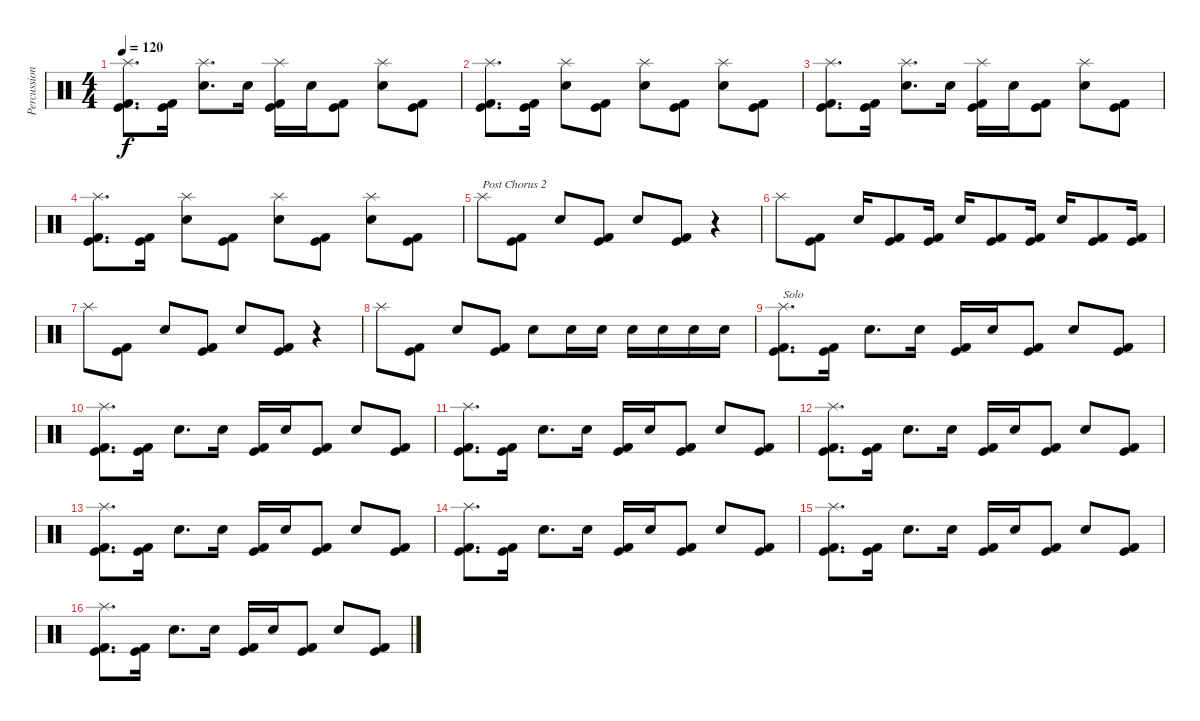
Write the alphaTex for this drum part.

\track ("Percussion" "Percussion") {instrument percussion}
\staff {score}
\articulation defaults
\ts (4 4)
\tempo 120
\clef neutral
\ks c
("Splash (hit)" "Kick (hit)" "Kick (hit) 2").8{d dy f} ("Kick (hit)" "Kick (hit) 2").16 ("Splash (hit)" "Snare (hit) 2").8{d} "Snare (hit) 2".16 ("Splash (hit)" "Kick (hit)" "Kick (hit) 2").16 "Snare (hit) 2".16 ("Kick (hit)" "Kick (hit) 2").8 ("Splash (hit)" "Snare (hit) 2").8 ("Kick (hit)" "Kick (hit) 2").8 |
("Splash (hit)" "Kick (hit)" "Kick (hit) 2").8{d} ("Kick (hit)" "Kick (hit) 2").16 ("Splash (hit)" "Snare (hit) 2").8 ("Kick (hit)" "Kick (hit) 2").8 ("Splash (hit)" "Snare (hit) 2").8 ("Kick (hit)" "Kick (hit) 2").8 ("Splash (hit)" "Snare (hit) 2").8 ("Kick (hit)" "Kick (hit) 2").8 |
("Splash (hit)" "Kick (hit)" "Kick (hit) 2").8{d} ("Kick (hit)" "Kick (hit) 2").16 ("Splash (hit)" "Snare (hit) 2").8{d} "Snare (hit) 2".16 ("Splash (hit)" "Kick (hit)" "Kick (hit) 2").16 "Snare (hit) 2".16 ("Kick (hit)" "Kick (hit) 2").8 ("Splash (hit)" "Snare (hit) 2").8 ("Kick (hit)" "Kick (hit) 2").8 |
("Splash (hit)" "Kick (hit)" "Kick (hit) 2").8{d} ("Kick (hit)" "Kick (hit) 2").16 ("Splash (hit)" "Snare (hit) 2").8 ("Kick (hit)" "Kick (hit) 2").8 ("Splash (hit)" "Snare (hit) 2").8 ("Kick (hit)" "Kick (hit) 2").8 ("Splash (hit)" "Snare (hit) 2").8 ("Kick (hit)" "Kick (hit) 2").8 |
"Splash (hit)".8{txt "Post Chorus 2"} ("Kick (hit)" "Kick (hit) 2").8 "Snare (hit) 2".8 ("Kick (hit)" "Kick (hit) 2").8 "Snare (hit) 2".8 ("Kick (hit)" "Kick (hit) 2").8 r.4 |
"Splash (hit)".8 ("Kick (hit)" "Kick (hit) 2").8 "Snare (hit) 2".16 ("Kick (hit)" "Kick (hit) 2").8 ("Kick (hit)" "Kick (hit) 2").16 "Snare (hit) 2".16 ("Kick (hit)" "Kick (hit) 2").8 ("Kick (hit)" "Kick (hit) 2").16 "Snare (hit) 2".16 ("Kick (hit)" "Kick (hit) 2").8 ("Kick (hit)" "Kick (hit) 2").16 |
"Splash (hit)".8 ("Kick (hit)" "Kick (hit) 2").8 "Snare (hit) 2".8 ("Kick (hit)" "Kick (hit) 2").8 "Snare (hit) 2".8 ("Kick (hit)" "Kick (hit) 2").8 r.4 |
"Splash (hit)".8 ("Kick (hit)" "Kick (hit) 2").8 "Snare (hit) 2".8 ("Kick (hit)" "Kick (hit) 2").8 "Snare (hit) 2".8 "Snare (hit) 2".16 "Snare (hit) 2".16 "Snare (hit) 2".16 "Snare (hit) 2".16 "Snare (hit) 2".16 "Snare (hit) 2".16 |
("Splash (hit)" "Kick (hit)" "Kick (hit) 2").8{d txt "Solo"} ("Kick (hit)" "Kick (hit) 2").16 "Snare (hit) 2".8{d} "Snare (hit) 2".16 ("Kick (hit)" "Kick (hit) 2").16 "Snare (hit) 2".16 ("Kick (hit)" "Kick (hit) 2").8 "Snare (hit) 2".8 ("Kick (hit)" "Kick (hit) 2").8 |
("Splash (hit)" "Kick (hit)" "Kick (hit) 2").8{d} ("Kick (hit)" "Kick (hit) 2").16 "Snare (hit) 2".8{d} "Snare (hit) 2".16 ("Kick (hit)" "Kick (hit) 2").16 "Snare (hit) 2".16 ("Kick (hit)" "Kick (hit) 2").8 "Snare (hit) 2".8 ("Kick (hit)" "Kick (hit) 2").8 |
("Splash (hit)" "Kick (hit)" "Kick (hit) 2").8{d} ("Kick (hit)" "Kick (hit) 2").16 "Snare (hit) 2".8{d} "Snare (hit) 2".16 ("Kick (hit)" "Kick (hit) 2").16 "Snare (hit) 2".16 ("Kick (hit)" "Kick (hit) 2").8 "Snare (hit) 2".8 ("Kick (hit)" "Kick (hit) 2").8 |
("Splash (hit)" "Kick (hit)" "Kick (hit) 2").8{d} ("Kick (hit)" "Kick (hit) 2").16 "Snare (hit) 2".8{d} "Snare (hit) 2".16 ("Kick (hit)" "Kick (hit) 2").16 "Snare (hit) 2".16 ("Kick (hit)" "Kick (hit) 2").8 "Snare (hit) 2".8 ("Kick (hit)" "Kick (hit) 2").8 |
("Splash (hit)" "Kick (hit)" "Kick (hit) 2").8{d} ("Kick (hit)" "Kick (hit) 2").16 "Snare (hit) 2".8{d} "Snare (hit) 2".16 ("Kick (hit)" "Kick (hit) 2").16 "Snare (hit) 2".16 ("Kick (hit)" "Kick (hit) 2").8 "Snare (hit) 2".8 ("Kick (hit)" "Kick (hit) 2").8 |
("Splash (hit)" "Kick (hit)" "Kick (hit) 2").8{d} ("Kick (hit)" "Kick (hit) 2").16 "Snare (hit) 2".8{d} "Snare (hit) 2".16 ("Kick (hit)" "Kick (hit) 2").16 "Snare (hit) 2".16 ("Kick (hit)" "Kick (hit) 2").8 "Snare (hit) 2".8 ("Kick (hit)" "Kick (hit) 2").8 |
("Splash (hit)" "Kick (hit)" "Kick (hit) 2").8{d} ("Kick (hit)" "Kick (hit) 2").16 "Snare (hit) 2".8{d} "Snare (hit) 2".16 ("Kick (hit)" "Kick (hit) 2").16 "Snare (hit) 2".16 ("Kick (hit)" "Kick (hit) 2").8 "Snare (hit) 2".8 ("Kick (hit)" "Kick (hit) 2").8 |
("Splash (hit)" "Kick (hit)" "Kick (hit) 2").8{d} ("Kick (hit)" "Kick (hit) 2").16 "Snare (hit) 2".8{d} "Snare (hit) 2".16 ("Kick (hit)" "Kick (hit) 2").16 "Snare (hit) 2".16 ("Kick (hit)" "Kick (hit) 2").8 "Snare (hit) 2".8 ("Kick (hit)" "Kick (hit) 2").8
